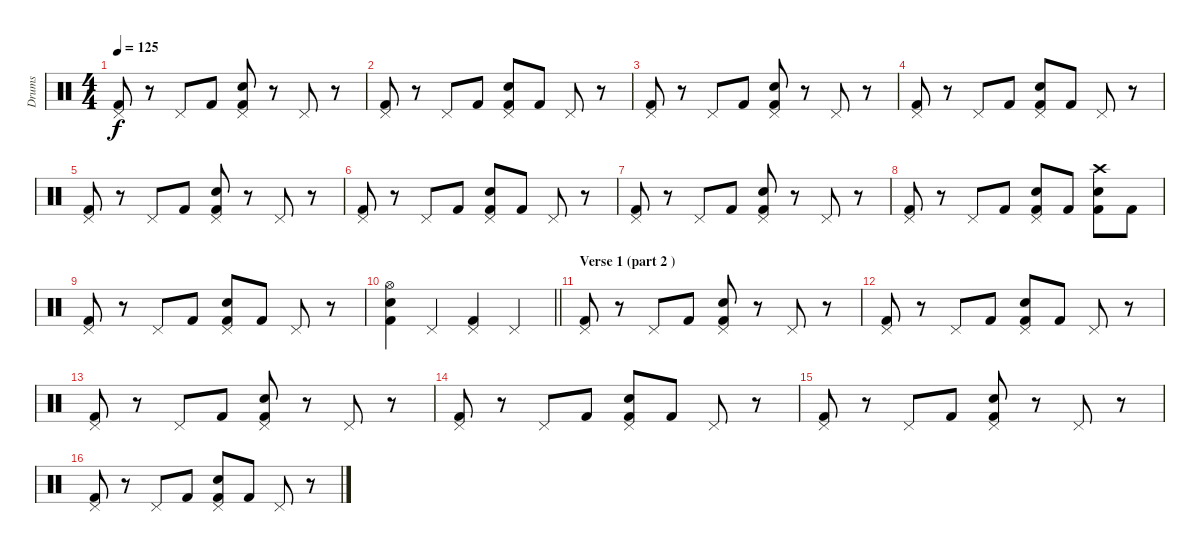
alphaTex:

\track ("Drums" "Drums") {instrument percussion}
\staff {score}
\articulation defaults
\ts (4 4)
\tempo 125
\clef neutral
\ks c
("Pedal Hi-Hat (hit)" "Kick (hit) 2").8{dy f} r.8 "Pedal Hi-Hat (hit)".8 "Kick (hit) 2".8 ("Pedal Hi-Hat (hit)" "Electric Snare (hit)" "Kick (hit) 2").8 r.8 "Pedal Hi-Hat (hit)".8 r.8 |
("Pedal Hi-Hat (hit)" "Kick (hit) 2").8 r.8 "Pedal Hi-Hat (hit)".8 "Kick (hit) 2".8 ("Pedal Hi-Hat (hit)" "Electric Snare (hit)" "Kick (hit) 2").8 "Kick (hit) 2".8 "Pedal Hi-Hat (hit)".8 r.8 |
("Pedal Hi-Hat (hit)" "Kick (hit) 2").8 r.8 "Pedal Hi-Hat (hit)".8 "Kick (hit) 2".8 ("Pedal Hi-Hat (hit)" "Electric Snare (hit)" "Kick (hit) 2").8 r.8 "Pedal Hi-Hat (hit)".8 r.8 |
("Pedal Hi-Hat (hit)" "Kick (hit) 2").8 r.8 "Pedal Hi-Hat (hit)".8 "Kick (hit) 2".8 ("Pedal Hi-Hat (hit)" "Electric Snare (hit)" "Kick (hit) 2").8 "Kick (hit) 2".8 "Pedal Hi-Hat (hit)".8 r.8 |
("Pedal Hi-Hat (hit)" "Kick (hit) 2").8 r.8 "Pedal Hi-Hat (hit)".8 "Kick (hit) 2".8 ("Pedal Hi-Hat (hit)" "Electric Snare (hit)" "Kick (hit) 2").8 r.8 "Pedal Hi-Hat (hit)".8 r.8 |
("Pedal Hi-Hat (hit)" "Kick (hit) 2").8 r.8 "Pedal Hi-Hat (hit)".8 "Kick (hit) 2".8 ("Pedal Hi-Hat (hit)" "Electric Snare (hit)" "Kick (hit) 2").8 "Kick (hit) 2".8 "Pedal Hi-Hat (hit)".8 r.8 |
("Pedal Hi-Hat (hit)" "Kick (hit) 2").8 r.8 "Pedal Hi-Hat (hit)".8 "Kick (hit) 2".8 ("Pedal Hi-Hat (hit)" "Electric Snare (hit)" "Kick (hit) 2").8 r.8 "Pedal Hi-Hat (hit)".8 r.8 |
("Pedal Hi-Hat (hit)" "Kick (hit) 2").8 r.8 "Pedal Hi-Hat (hit)".8 "Kick (hit) 2".8 ("Pedal Hi-Hat (hit)" "Electric Snare (hit)" "Kick (hit) 2").8 "Kick (hit) 2".8 ("Crash high (hit)" "Electric Snare (hit)" "Kick (hit) 2").8 "Kick (hit) 2".8 |
("Pedal Hi-Hat (hit)" "Kick (hit) 2").8 r.8 "Pedal Hi-Hat (hit)".8 "Kick (hit) 2".8 ("Pedal Hi-Hat (hit)" "Electric Snare (hit)" "Kick (hit) 2").8 "Kick (hit) 2".8 "Pedal Hi-Hat (hit)".8 r.8 |
\barLineRight lightlight
("Hi-Hat (open)" "Electric Snare (hit)" "Kick (hit) 2").4 "Pedal Hi-Hat (hit)".4 ("Pedal Hi-Hat (hit)" "Kick (hit) 2").4 "Pedal Hi-Hat (hit)".4 |
\section ("" "Verse 1 (part 2 )")
("Pedal Hi-Hat (hit)" "Kick (hit) 2").8 r.8 "Pedal Hi-Hat (hit)".8 "Kick (hit) 2".8 ("Pedal Hi-Hat (hit)" "Electric Snare (hit)" "Kick (hit) 2").8 r.8 "Pedal Hi-Hat (hit)".8 r.8 |
("Pedal Hi-Hat (hit)" "Kick (hit) 2").8 r.8 "Pedal Hi-Hat (hit)".8 "Kick (hit) 2".8 ("Pedal Hi-Hat (hit)" "Electric Snare (hit)" "Kick (hit) 2").8 "Kick (hit) 2".8 "Pedal Hi-Hat (hit)".8 r.8 |
("Pedal Hi-Hat (hit)" "Kick (hit) 2").8 r.8 "Pedal Hi-Hat (hit)".8 "Kick (hit) 2".8 ("Pedal Hi-Hat (hit)" "Electric Snare (hit)" "Kick (hit) 2").8 r.8 "Pedal Hi-Hat (hit)".8 r.8 |
("Pedal Hi-Hat (hit)" "Kick (hit) 2").8 r.8 "Pedal Hi-Hat (hit)".8 "Kick (hit) 2".8 ("Pedal Hi-Hat (hit)" "Electric Snare (hit)" "Kick (hit) 2").8 "Kick (hit) 2".8 "Pedal Hi-Hat (hit)".8 r.8 |
("Pedal Hi-Hat (hit)" "Kick (hit) 2").8 r.8 "Pedal Hi-Hat (hit)".8 "Kick (hit) 2".8 ("Pedal Hi-Hat (hit)" "Electric Snare (hit)" "Kick (hit) 2").8 r.8 "Pedal Hi-Hat (hit)".8 r.8 |
("Pedal Hi-Hat (hit)" "Kick (hit) 2").8 r.8 "Pedal Hi-Hat (hit)".8 "Kick (hit) 2".8 ("Pedal Hi-Hat (hit)" "Electric Snare (hit)" "Kick (hit) 2").8 "Kick (hit) 2".8 "Pedal Hi-Hat (hit)".8 r.8
